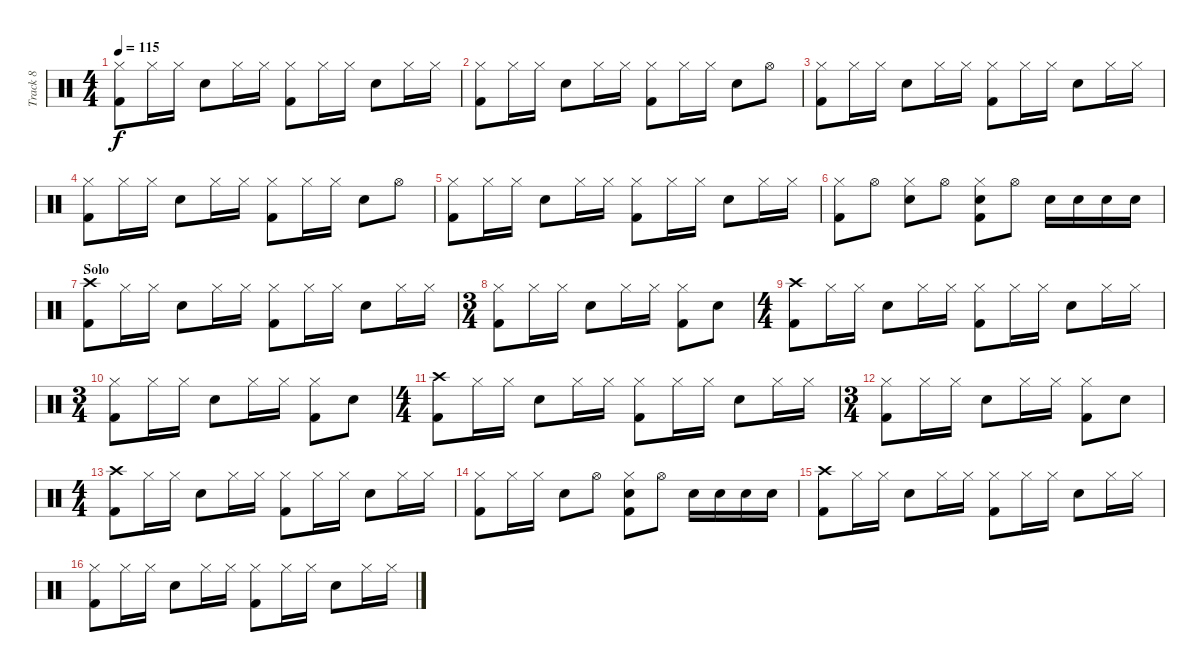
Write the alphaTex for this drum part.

\track ("Track 8" "Track 8") {instrument percussion}
\staff {score}
\articulation defaults
\ts (4 4)
\tempo 115
\clef neutral
\ks c
("Hi-Hat (closed)" "Kick (hit) 2").8{dy f} "Hi-Hat (closed)".16 "Hi-Hat (closed)".16 "Electric Snare (hit)".8 "Hi-Hat (closed)".16 "Hi-Hat (closed)".16 ("Hi-Hat (closed)" "Kick (hit) 2").8 "Hi-Hat (closed)".16 "Hi-Hat (closed)".16 "Electric Snare (hit)".8 "Hi-Hat (closed)".16 "Hi-Hat (closed)".16 |
("Hi-Hat (closed)" "Kick (hit) 2").8 "Hi-Hat (closed)".16 "Hi-Hat (closed)".16 "Electric Snare (hit)".8 "Hi-Hat (closed)".16 "Hi-Hat (closed)".16 ("Hi-Hat (closed)" "Kick (hit) 2").8 "Hi-Hat (closed)".16 "Hi-Hat (closed)".16 "Electric Snare (hit)".8 "Hi-Hat (open)".8 |
("Hi-Hat (closed)" "Kick (hit) 2").8 "Hi-Hat (closed)".16 "Hi-Hat (closed)".16 "Electric Snare (hit)".8 "Hi-Hat (closed)".16 "Hi-Hat (closed)".16 ("Hi-Hat (closed)" "Kick (hit) 2").8 "Hi-Hat (closed)".16 "Hi-Hat (closed)".16 "Electric Snare (hit)".8 "Hi-Hat (closed)".16 "Hi-Hat (closed)".16 |
("Hi-Hat (closed)" "Kick (hit) 2").8 "Hi-Hat (closed)".16 "Hi-Hat (closed)".16 "Electric Snare (hit)".8 "Hi-Hat (closed)".16 "Hi-Hat (closed)".16 ("Hi-Hat (closed)" "Kick (hit) 2").8 "Hi-Hat (closed)".16 "Hi-Hat (closed)".16 "Electric Snare (hit)".8 "Hi-Hat (open)".8 |
("Hi-Hat (closed)" "Kick (hit) 2").8 "Hi-Hat (closed)".16 "Hi-Hat (closed)".16 "Electric Snare (hit)".8 "Hi-Hat (closed)".16 "Hi-Hat (closed)".16 ("Hi-Hat (closed)" "Kick (hit) 2").8 "Hi-Hat (closed)".16 "Hi-Hat (closed)".16 "Electric Snare (hit)".8 "Hi-Hat (closed)".16 "Hi-Hat (closed)".16 |
("Hi-Hat (closed)" "Kick (hit) 2").8 "Hi-Hat (open)".8 ("Hi-Hat (closed)" "Electric Snare (hit)").8 "Hi-Hat (open)".8 ("Hi-Hat (closed)" "Kick (hit) 2" "Electric Snare (hit)").8 "Hi-Hat (open)".8 "Electric Snare (hit)".16 "Electric Snare (hit)".16 "Electric Snare (hit)".16 "Electric Snare (hit)".16 |
\section ("" "Solo")
("Crash high (hit)" "Kick (hit) 2").8 "Hi-Hat (closed)".16 "Hi-Hat (closed)".16 "Electric Snare (hit)".8 "Hi-Hat (closed)".16 "Hi-Hat (closed)".16 ("Hi-Hat (closed)" "Kick (hit) 2").8 "Hi-Hat (closed)".16 "Hi-Hat (closed)".16 "Electric Snare (hit)".8 "Hi-Hat (closed)".16 "Hi-Hat (closed)".16 |
\ts (3 4)
("Hi-Hat (closed)" "Kick (hit) 2").8 "Hi-Hat (closed)".16 "Hi-Hat (closed)".16 "Electric Snare (hit)".8 "Hi-Hat (closed)".16 "Hi-Hat (closed)".16 ("Hi-Hat (closed)" "Kick (hit) 2").8 "Electric Snare (hit)".8 |
\ts (4 4)
("Crash high (hit)" "Kick (hit) 2").8 "Hi-Hat (closed)".16 "Hi-Hat (closed)".16 "Electric Snare (hit)".8 "Hi-Hat (closed)".16 "Hi-Hat (closed)".16 ("Hi-Hat (closed)" "Kick (hit) 2").8 "Hi-Hat (closed)".16 "Hi-Hat (closed)".16 "Electric Snare (hit)".8 "Hi-Hat (closed)".16 "Hi-Hat (closed)".16 |
\ts (3 4)
("Hi-Hat (closed)" "Kick (hit) 2").8 "Hi-Hat (closed)".16 "Hi-Hat (closed)".16 "Electric Snare (hit)".8 "Hi-Hat (closed)".16 "Hi-Hat (closed)".16 ("Hi-Hat (closed)" "Kick (hit) 2").8 "Electric Snare (hit)".8 |
\ts (4 4)
("Crash high (hit)" "Kick (hit) 2").8 "Hi-Hat (closed)".16 "Hi-Hat (closed)".16 "Electric Snare (hit)".8 "Hi-Hat (closed)".16 "Hi-Hat (closed)".16 ("Hi-Hat (closed)" "Kick (hit) 2").8 "Hi-Hat (closed)".16 "Hi-Hat (closed)".16 "Electric Snare (hit)".8 "Hi-Hat (closed)".16 "Hi-Hat (closed)".16 |
\ts (3 4)
("Hi-Hat (closed)" "Kick (hit) 2").8 "Hi-Hat (closed)".16 "Hi-Hat (closed)".16 "Electric Snare (hit)".8 "Hi-Hat (closed)".16 "Hi-Hat (closed)".16 ("Hi-Hat (closed)" "Kick (hit) 2").8 "Electric Snare (hit)".8 |
\ts (4 4)
("Crash high (hit)" "Kick (hit) 2").8 "Hi-Hat (closed)".16 "Hi-Hat (closed)".16 "Electric Snare (hit)".8 "Hi-Hat (closed)".16 "Hi-Hat (closed)".16 ("Hi-Hat (closed)" "Kick (hit) 2").8 "Hi-Hat (closed)".16 "Hi-Hat (closed)".16 "Electric Snare (hit)".8 "Hi-Hat (closed)".16 "Hi-Hat (closed)".16 |
("Hi-Hat (closed)" "Kick (hit) 2").8 "Hi-Hat (closed)".16 "Hi-Hat (closed)".16 "Electric Snare (hit)".8 "Hi-Hat (open)".8 ("Hi-Hat (closed)" "Kick (hit) 2" "Electric Snare (hit)").8 "Hi-Hat (open)".8 "Electric Snare (hit)".16 "Electric Snare (hit)".16 "Electric Snare (hit)".16 "Electric Snare (hit)".16 |
("Crash high (hit)" "Kick (hit) 2").8 "Hi-Hat (closed)".16 "Hi-Hat (closed)".16 "Electric Snare (hit)".8 "Hi-Hat (closed)".16 "Hi-Hat (closed)".16 ("Hi-Hat (closed)" "Kick (hit) 2").8 "Hi-Hat (closed)".16 "Hi-Hat (closed)".16 "Electric Snare (hit)".8 "Hi-Hat (closed)".16 "Hi-Hat (closed)".16 |
("Hi-Hat (closed)" "Kick (hit) 2").8 "Hi-Hat (closed)".16 "Hi-Hat (closed)".16 "Electric Snare (hit)".8 "Hi-Hat (closed)".16 "Hi-Hat (closed)".16 ("Hi-Hat (closed)" "Kick (hit) 2").8 "Hi-Hat (closed)".16 "Hi-Hat (closed)".16 "Electric Snare (hit)".8 "Hi-Hat (closed)".16 "Hi-Hat (closed)".16
